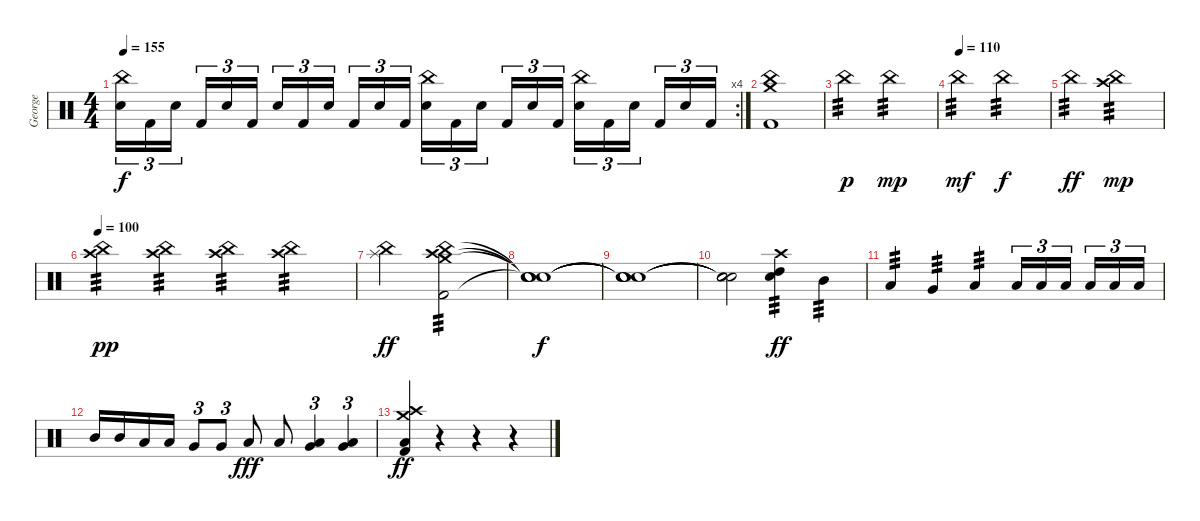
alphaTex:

\track ("George" "George") {instrument percussion}
\staff {score}
\articulation defaults
\rc 4
\ts (4 4)
\tempo 155
\clef neutral
\ks c
("China (hit)" "Snare (hit) 2").16{tu (3 2) dy f} "Kick (hit) 2".16{tu (3 2)} "Snare (hit) 2".16{tu (3 2) beam splitsecondary} "Kick (hit) 2".16{tu (3 2)} "Snare (hit) 2".16{tu (3 2)} "Kick (hit) 2".16{tu (3 2)} "Snare (hit) 2".16{tu (3 2)} "Kick (hit) 2".16{tu (3 2)} "Snare (hit) 2".16{tu (3 2) beam splitsecondary} "Kick (hit) 2".16{tu (3 2)} "Snare (hit) 2".16{tu (3 2)} "Kick (hit) 2".16{tu (3 2)} ("China (hit)" "Snare (hit) 2").16{tu (3 2)} "Kick (hit) 2".16{tu (3 2)} "Snare (hit) 2".16{tu (3 2) beam splitsecondary} "Kick (hit) 2".16{tu (3 2)} "Snare (hit) 2".16{tu (3 2)} "Kick (hit) 2".16{tu (3 2)} ("China (hit)" "Snare (hit) 2").16{tu (3 2)} "Kick (hit) 2".16{tu (3 2)} "Snare (hit) 2".16{tu (3 2) beam splitsecondary} "Kick (hit) 2".16{tu (3 2)} "Snare (hit) 2".16{tu (3 2)} "Kick (hit) 2".16{tu (3 2)} |
("Crash medium (hit)" "China (hit)" "Kick (hit) 2").1 |
"China (hit)".2{tp 3 dy p} "China (hit)".2{tp 3 dy mp} |
\tempo 130
\tempo (110)
"China (hit)".2{tp 3 dy mf} "China (hit)".2{tp 3 dy f} |
"China (hit)".2{tp 3 dy ff} ("China (hit)" "Crash high (hit)").2{tp 3 dy mp} |
\tempo 100
("China (hit)" "Crash high (hit)").4{tp 3 dy pp} ("China (hit)" "Crash high (hit)").4{tp 3} ("China (hit)" "Crash high (hit)").4{tp 3} ("China (hit)" "Crash high (hit)").4{tp 3} |
("China (hit)" "Splash (hit)").2{dy ff} ("Crash high (hit)" "Crash medium (hit)" "China (hit)" "Kick (hit) 2").2{tp 3} |
("Snare (hit)"{t} "Snare (hit)"{t} "Snare (hit)"{t} "Snare (hit)"{t}).1{dy f} |
("Snare (hit)"{t} "Snare (hit)"{t} "Snare (hit)"{t} "Snare (hit)"{t}).1 |
("Snare (hit)"{t} "Snare (hit)"{t} "Snare (hit)"{t} "Snare (hit)"{t}).2 ("Crash high (hit)" "Snare (hit) 2" "High Tom (hit)").4{tp 3 dy ff} "Mid Tom (hit)".4{tp 3} |
"Low Tom (hit)".4{tp 3} "Very Low Tom (hit)".4{tp 3} "Low Floor Tom (hit)".4{tp 3} "Low Floor Tom (hit)".16{tu (3 2)} "Low Floor Tom (hit)".16{tu (3 2)} "Low Floor Tom (hit)".16{tu (3 2) beam splitsecondary} "Low Floor Tom (hit)".16{tu (3 2)} "Low Floor Tom (hit)".16{tu (3 2)} "Low Floor Tom (hit)".16{tu (3 2)} |
"Mid Tom (hit)".16 "Mid Tom (hit)".16 "Low Tom (hit)".16 "Low Tom (hit)".16 "Very Low Tom (hit)".8{tu (3 2)} "Very Low Tom (hit)".8{tu (3 2)} "Low Floor Tom (hit)".8{dy fff} "Low Floor Tom (hit)".8 ("Very Low Tom (hit)" "Low Floor Tom (hit)").4{tu (3 2)} ("Very Low Tom (hit)" "Low Floor Tom (hit)").4{tu (3 2)} |
("Kick (hit) 2" "Crash high (hit)" "Crash medium (hit)" "Low Floor Tom (hit)").4{dy ff} r.4 r.4 r.4
